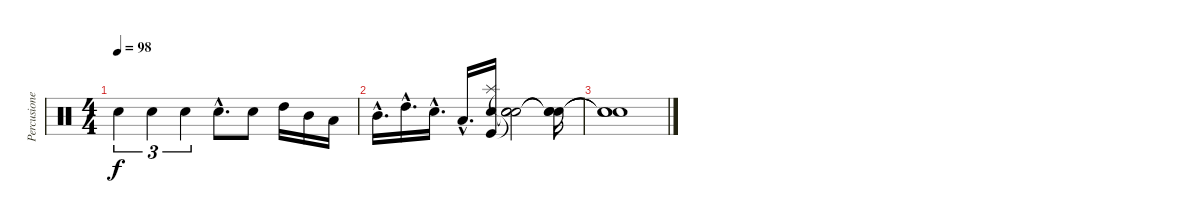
\track ("Percusiones" "Percusione") {instrument percussion}
\staff {score}
\articulation defaults
\ts (4 4)
\tempo 98
\clef neutral
\ks c "Electric Snare (hit)".4{tu (3 2) dy f} "Electric Snare (hit)".4{tu (3 2)} "Electric Snare (hit)".4{tu (3 2)} "Electric Snare (hit)"{hac}.8{d} "Electric Snare (hit)".8 "High Tom (hit)".16 "Mid Tom (hit)".16 "Low Tom (hit)".16
|
"Mid Tom (hit)"{hac}.16{d} "High Tom (hit)"{hac}.16{d} "Electric Snare (hit)"{hac}.16{d} "Low Tom (hit)"{hac}.16{d} ("Electric Snare (hit)" "Splash (hit)" "Kick (hit)").16 ("Snare (hit)"{t} "Snare (hit)"{t} "Snare (hit)"{t}).2 ("Snare (hit)"{t} "Snare (hit)"{t} "Snare (hit)"{t}).16 |
("Snare (hit)"{t} "Snare (hit)"{t} "Snare (hit)"{t}).1
